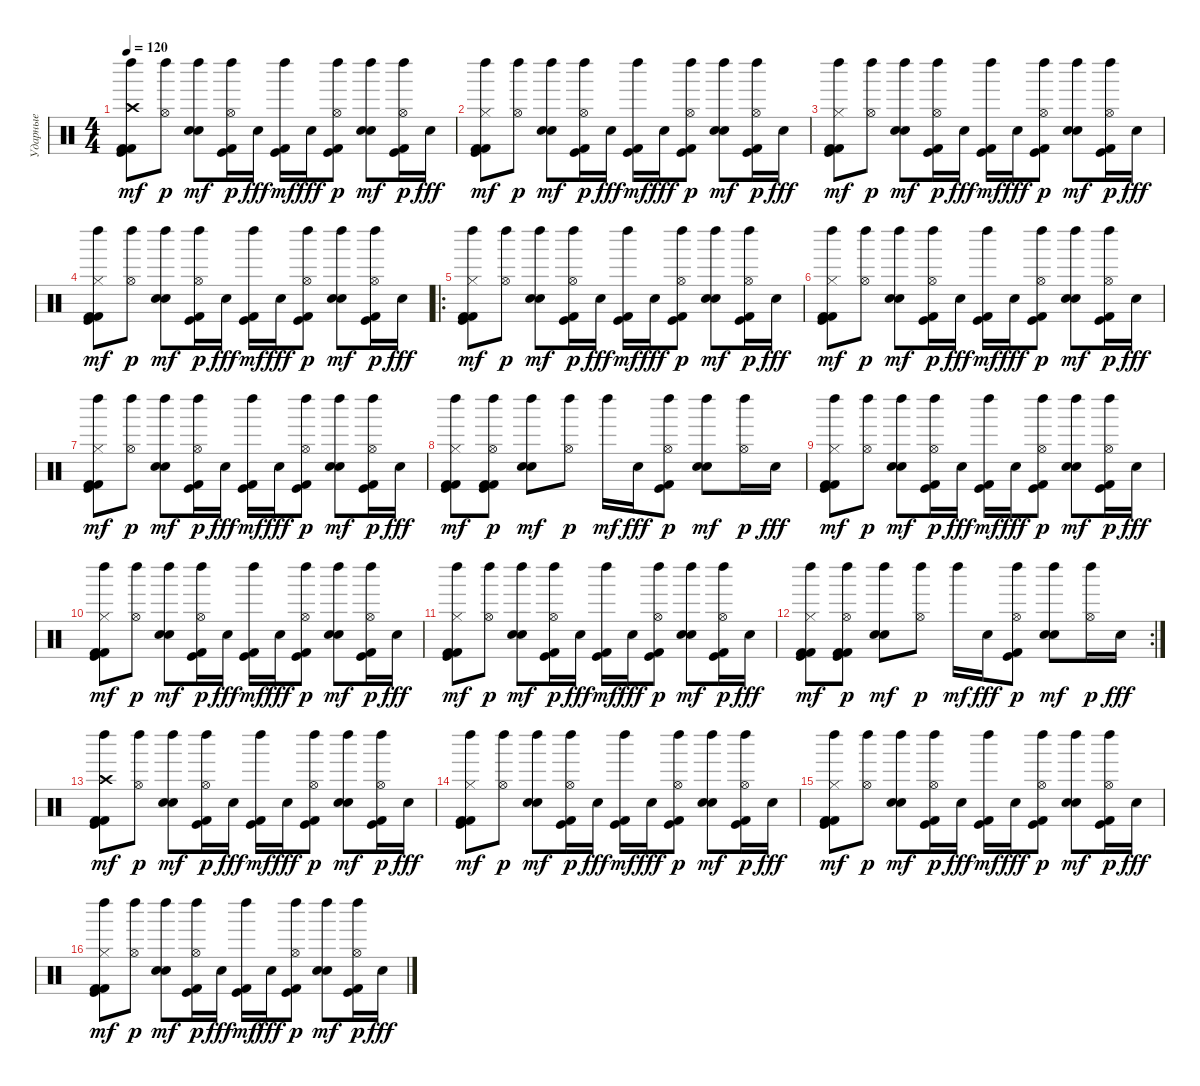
\track ("Ударные" "Ударные") {instrument percussion}
\staff {score}
\articulation defaults
\ts (4 4)
\tempo 120
\clef neutral
\ks c
("Crash high (hit)" "Kick (hit)" "Kick (hit) 2" "Kick (hit) 2" "Left Maraca (hit)").8{dy mf} ("Hi-Hat (open)" "Left Maraca (hit)").8{dy p} ("Snare (hit) 2" "Electric Snare (hit)" "Left Maraca (hit)").8{dy mf} ("Hi-Hat (open)" "Kick (hit)" "Kick (hit) 2" "Left Maraca (hit)").16{dy p} "Snare (hit) 2".16{dy fff} ("Kick (hit)" "Kick (hit) 2" "Left Maraca (hit)").16{dy mf} "Snare (hit) 2".16{dy fff} ("Hi-Hat (open)" "Kick (hit)" "Kick (hit) 2" "Left Maraca (hit)").8{dy p} ("Snare (hit) 2" "Electric Snare (hit)" "Left Maraca (hit)").8{dy mf} ("Hi-Hat (open)" "Kick (hit)" "Kick (hit) 2" "Left Maraca (hit)").16{dy p} "Snare (hit) 2".16{dy fff} |
("Hi-Hat (closed)" "Kick (hit)" "Kick (hit) 2" "Kick (hit) 2" "Left Maraca (hit)").8{dy mf} ("Hi-Hat (open)" "Left Maraca (hit)").8{dy p} ("Snare (hit) 2" "Electric Snare (hit)" "Left Maraca (hit)").8{dy mf} ("Hi-Hat (open)" "Kick (hit)" "Kick (hit) 2" "Left Maraca (hit)").16{dy p} "Snare (hit) 2".16{dy fff} ("Kick (hit)" "Kick (hit) 2" "Left Maraca (hit)").16{dy mf} "Snare (hit) 2".16{dy fff} ("Hi-Hat (open)" "Kick (hit)" "Kick (hit) 2" "Left Maraca (hit)").8{dy p} ("Snare (hit) 2" "Electric Snare (hit)" "Left Maraca (hit)").8{dy mf} ("Hi-Hat (open)" "Kick (hit)" "Kick (hit) 2" "Left Maraca (hit)").16{dy p} "Snare (hit) 2".16{dy fff} |
("Hi-Hat (closed)" "Kick (hit)" "Kick (hit) 2" "Kick (hit) 2" "Left Maraca (hit)").8{dy mf} ("Hi-Hat (open)" "Left Maraca (hit)").8{dy p} ("Snare (hit) 2" "Electric Snare (hit)" "Left Maraca (hit)").8{dy mf} ("Hi-Hat (open)" "Kick (hit)" "Kick (hit) 2" "Left Maraca (hit)").16{dy p} "Snare (hit) 2".16{dy fff} ("Kick (hit)" "Kick (hit) 2" "Left Maraca (hit)").16{dy mf} "Snare (hit) 2".16{dy fff} ("Hi-Hat (open)" "Kick (hit)" "Kick (hit) 2" "Left Maraca (hit)").8{dy p} ("Snare (hit) 2" "Electric Snare (hit)" "Left Maraca (hit)").8{dy mf} ("Hi-Hat (open)" "Kick (hit)" "Kick (hit) 2" "Left Maraca (hit)").16{dy p} "Snare (hit) 2".16{dy fff} |
("Hi-Hat (closed)" "Kick (hit)" "Kick (hit) 2" "Kick (hit) 2" "Left Maraca (hit)").8{dy mf} ("Hi-Hat (open)" "Left Maraca (hit)").8{dy p} ("Snare (hit) 2" "Electric Snare (hit)" "Left Maraca (hit)").8{dy mf} ("Hi-Hat (open)" "Kick (hit)" "Kick (hit) 2" "Left Maraca (hit)").16{dy p} "Snare (hit) 2".16{dy fff} ("Kick (hit)" "Kick (hit) 2" "Left Maraca (hit)").16{dy mf} "Snare (hit) 2".16{dy fff} ("Hi-Hat (open)" "Kick (hit)" "Kick (hit) 2" "Left Maraca (hit)").8{dy p} ("Snare (hit) 2" "Electric Snare (hit)" "Left Maraca (hit)").8{dy mf} ("Hi-Hat (open)" "Kick (hit)" "Kick (hit) 2" "Left Maraca (hit)").16{dy p} "Snare (hit) 2".16{dy fff} |
\ro
("Hi-Hat (closed)" "Kick (hit)" "Kick (hit) 2" "Kick (hit) 2" "Left Maraca (hit)").8{dy mf} ("Hi-Hat (open)" "Left Maraca (hit)").8{dy p} ("Snare (hit) 2" "Electric Snare (hit)" "Left Maraca (hit)").8{dy mf} ("Hi-Hat (open)" "Kick (hit)" "Kick (hit) 2" "Left Maraca (hit)").16{dy p} "Snare (hit) 2".16{dy fff} ("Kick (hit)" "Kick (hit) 2" "Left Maraca (hit)").16{dy mf} "Snare (hit) 2".16{dy fff} ("Hi-Hat (open)" "Kick (hit)" "Kick (hit) 2" "Left Maraca (hit)").8{dy p} ("Snare (hit) 2" "Electric Snare (hit)" "Left Maraca (hit)").8{dy mf} ("Hi-Hat (open)" "Kick (hit)" "Kick (hit) 2" "Left Maraca (hit)").16{dy p} "Snare (hit) 2".16{dy fff} |
("Hi-Hat (closed)" "Kick (hit)" "Kick (hit) 2" "Kick (hit) 2" "Left Maraca (hit)").8{dy mf} ("Hi-Hat (open)" "Left Maraca (hit)").8{dy p} ("Snare (hit) 2" "Electric Snare (hit)" "Left Maraca (hit)").8{dy mf} ("Hi-Hat (open)" "Kick (hit)" "Kick (hit) 2" "Left Maraca (hit)").16{dy p} "Snare (hit) 2".16{dy fff} ("Kick (hit)" "Kick (hit) 2" "Left Maraca (hit)").16{dy mf} "Snare (hit) 2".16{dy fff} ("Hi-Hat (open)" "Kick (hit)" "Kick (hit) 2" "Left Maraca (hit)").8{dy p} ("Snare (hit) 2" "Electric Snare (hit)" "Left Maraca (hit)").8{dy mf} ("Hi-Hat (open)" "Kick (hit)" "Kick (hit) 2" "Left Maraca (hit)").16{dy p} "Snare (hit) 2".16{dy fff} |
("Hi-Hat (closed)" "Kick (hit)" "Kick (hit) 2" "Kick (hit) 2" "Left Maraca (hit)").8{dy mf} ("Hi-Hat (open)" "Left Maraca (hit)").8{dy p} ("Snare (hit) 2" "Electric Snare (hit)" "Left Maraca (hit)").8{dy mf} ("Hi-Hat (open)" "Kick (hit)" "Kick (hit) 2" "Left Maraca (hit)").16{dy p} "Snare (hit) 2".16{dy fff} ("Kick (hit)" "Kick (hit) 2" "Left Maraca (hit)").16{dy mf} "Snare (hit) 2".16{dy fff} ("Hi-Hat (open)" "Kick (hit)" "Kick (hit) 2" "Left Maraca (hit)").8{dy p} ("Snare (hit) 2" "Electric Snare (hit)" "Left Maraca (hit)").8{dy mf} ("Hi-Hat (open)" "Kick (hit)" "Kick (hit) 2" "Left Maraca (hit)").16{dy p} "Snare (hit) 2".16{dy fff} |
("Hi-Hat (closed)" "Kick (hit)" "Kick (hit) 2" "Kick (hit) 2" "Left Maraca (hit)").8{dy mf} ("Hi-Hat (open)" "Kick (hit)" "Kick (hit) 2" "Kick (hit) 2" "Left Maraca (hit)").8{dy p} ("Snare (hit) 2" "Electric Snare (hit)" "Left Maraca (hit)").8{dy mf} ("Hi-Hat (open)" "Left Maraca (hit)").8{dy p} "Left Maraca (hit)".16{dy mf} "Snare (hit) 2".16{dy fff} ("Hi-Hat (open)" "Kick (hit)" "Kick (hit) 2" "Left Maraca (hit)").8{dy p} ("Snare (hit) 2" "Electric Snare (hit)" "Left Maraca (hit)").8{dy mf} ("Hi-Hat (open)" "Left Maraca (hit)").16{dy p} "Snare (hit) 2".16{dy fff} |
("Hi-Hat (closed)" "Kick (hit)" "Kick (hit) 2" "Kick (hit) 2" "Left Maraca (hit)").8{dy mf} ("Hi-Hat (open)" "Left Maraca (hit)").8{dy p} ("Snare (hit) 2" "Electric Snare (hit)" "Left Maraca (hit)").8{dy mf} ("Hi-Hat (open)" "Kick (hit)" "Kick (hit) 2" "Left Maraca (hit)").16{dy p} "Snare (hit) 2".16{dy fff} ("Kick (hit)" "Kick (hit) 2" "Left Maraca (hit)").16{dy mf} "Snare (hit) 2".16{dy fff} ("Hi-Hat (open)" "Kick (hit)" "Kick (hit) 2" "Left Maraca (hit)").8{dy p} ("Snare (hit) 2" "Electric Snare (hit)" "Left Maraca (hit)").8{dy mf} ("Hi-Hat (open)" "Kick (hit)" "Kick (hit) 2" "Left Maraca (hit)").16{dy p} "Snare (hit) 2".16{dy fff} |
("Hi-Hat (closed)" "Kick (hit)" "Kick (hit) 2" "Kick (hit) 2" "Left Maraca (hit)").8{dy mf} ("Hi-Hat (open)" "Left Maraca (hit)").8{dy p} ("Snare (hit) 2" "Electric Snare (hit)" "Left Maraca (hit)").8{dy mf} ("Hi-Hat (open)" "Kick (hit)" "Kick (hit) 2" "Left Maraca (hit)").16{dy p} "Snare (hit) 2".16{dy fff} ("Kick (hit)" "Kick (hit) 2" "Left Maraca (hit)").16{dy mf} "Snare (hit) 2".16{dy fff} ("Hi-Hat (open)" "Kick (hit)" "Kick (hit) 2" "Left Maraca (hit)").8{dy p} ("Snare (hit) 2" "Electric Snare (hit)" "Left Maraca (hit)").8{dy mf} ("Hi-Hat (open)" "Kick (hit)" "Kick (hit) 2" "Left Maraca (hit)").16{dy p} "Snare (hit) 2".16{dy fff} |
("Hi-Hat (closed)" "Kick (hit)" "Kick (hit) 2" "Kick (hit) 2" "Left Maraca (hit)").8{dy mf} ("Hi-Hat (open)" "Left Maraca (hit)").8{dy p} ("Snare (hit) 2" "Electric Snare (hit)" "Left Maraca (hit)").8{dy mf} ("Hi-Hat (open)" "Kick (hit)" "Kick (hit) 2" "Left Maraca (hit)").16{dy p} "Snare (hit) 2".16{dy fff} ("Kick (hit)" "Kick (hit) 2" "Left Maraca (hit)").16{dy mf} "Snare (hit) 2".16{dy fff} ("Hi-Hat (open)" "Kick (hit)" "Kick (hit) 2" "Left Maraca (hit)").8{dy p} ("Snare (hit) 2" "Electric Snare (hit)" "Left Maraca (hit)").8{dy mf} ("Hi-Hat (open)" "Kick (hit)" "Kick (hit) 2" "Left Maraca (hit)").16{dy p} "Snare (hit) 2".16{dy fff} |
\rc 2
("Hi-Hat (closed)" "Kick (hit)" "Kick (hit) 2" "Kick (hit) 2" "Left Maraca (hit)").8{dy mf} ("Hi-Hat (open)" "Kick (hit)" "Kick (hit) 2" "Kick (hit) 2" "Left Maraca (hit)").8{dy p} ("Snare (hit) 2" "Electric Snare (hit)" "Left Maraca (hit)").8{dy mf} ("Hi-Hat (open)" "Left Maraca (hit)").8{dy p} "Left Maraca (hit)".16{dy mf} "Snare (hit) 2".16{dy fff} ("Hi-Hat (open)" "Kick (hit)" "Kick (hit) 2" "Left Maraca (hit)").8{dy p} ("Snare (hit) 2" "Electric Snare (hit)" "Left Maraca (hit)").8{dy mf} ("Hi-Hat (open)" "Left Maraca (hit)").16{dy p} "Snare (hit) 2".16{dy fff} |
("Crash high (hit)" "Kick (hit)" "Kick (hit) 2" "Kick (hit) 2" "Left Maraca (hit)").8{dy mf} ("Hi-Hat (open)" "Left Maraca (hit)").8{dy p} ("Snare (hit) 2" "Electric Snare (hit)" "Left Maraca (hit)").8{dy mf} ("Hi-Hat (open)" "Kick (hit)" "Kick (hit) 2" "Left Maraca (hit)").16{dy p} "Snare (hit) 2".16{dy fff} ("Kick (hit)" "Kick (hit) 2" "Left Maraca (hit)").16{dy mf} "Snare (hit) 2".16{dy fff} ("Hi-Hat (open)" "Kick (hit)" "Kick (hit) 2" "Left Maraca (hit)").8{dy p} ("Snare (hit) 2" "Electric Snare (hit)" "Left Maraca (hit)").8{dy mf} ("Hi-Hat (open)" "Kick (hit)" "Kick (hit) 2" "Left Maraca (hit)").16{dy p} "Snare (hit) 2".16{dy fff} |
("Hi-Hat (closed)" "Kick (hit)" "Kick (hit) 2" "Kick (hit) 2" "Left Maraca (hit)").8{dy mf} ("Hi-Hat (open)" "Left Maraca (hit)").8{dy p} ("Snare (hit) 2" "Electric Snare (hit)" "Left Maraca (hit)").8{dy mf} ("Hi-Hat (open)" "Kick (hit)" "Kick (hit) 2" "Left Maraca (hit)").16{dy p} "Snare (hit) 2".16{dy fff} ("Kick (hit)" "Kick (hit) 2" "Left Maraca (hit)").16{dy mf} "Snare (hit) 2".16{dy fff} ("Hi-Hat (open)" "Kick (hit)" "Kick (hit) 2" "Left Maraca (hit)").8{dy p} ("Snare (hit) 2" "Electric Snare (hit)" "Left Maraca (hit)").8{dy mf} ("Hi-Hat (open)" "Kick (hit)" "Kick (hit) 2" "Left Maraca (hit)").16{dy p} "Snare (hit) 2".16{dy fff} |
("Hi-Hat (closed)" "Kick (hit)" "Kick (hit) 2" "Kick (hit) 2" "Left Maraca (hit)").8{dy mf} ("Hi-Hat (open)" "Left Maraca (hit)").8{dy p} ("Snare (hit) 2" "Electric Snare (hit)" "Left Maraca (hit)").8{dy mf} ("Hi-Hat (open)" "Kick (hit)" "Kick (hit) 2" "Left Maraca (hit)").16{dy p} "Snare (hit) 2".16{dy fff} ("Kick (hit)" "Kick (hit) 2" "Left Maraca (hit)").16{dy mf} "Snare (hit) 2".16{dy fff} ("Hi-Hat (open)" "Kick (hit)" "Kick (hit) 2" "Left Maraca (hit)").8{dy p} ("Snare (hit) 2" "Electric Snare (hit)" "Left Maraca (hit)").8{dy mf} ("Hi-Hat (open)" "Kick (hit)" "Kick (hit) 2" "Left Maraca (hit)").16{dy p} "Snare (hit) 2".16{dy fff} |
("Hi-Hat (closed)" "Kick (hit)" "Kick (hit) 2" "Kick (hit) 2" "Left Maraca (hit)").8{dy mf} ("Hi-Hat (open)" "Left Maraca (hit)").8{dy p} ("Snare (hit) 2" "Electric Snare (hit)" "Left Maraca (hit)").8{dy mf} ("Hi-Hat (open)" "Kick (hit)" "Kick (hit) 2" "Left Maraca (hit)").16{dy p} "Snare (hit) 2".16{dy fff} ("Kick (hit)" "Kick (hit) 2" "Left Maraca (hit)").16{dy mf} "Snare (hit) 2".16{dy fff} ("Hi-Hat (open)" "Kick (hit)" "Kick (hit) 2" "Left Maraca (hit)").8{dy p} ("Snare (hit) 2" "Electric Snare (hit)" "Left Maraca (hit)").8{dy mf} ("Hi-Hat (open)" "Kick (hit)" "Kick (hit) 2" "Left Maraca (hit)").16{dy p} "Snare (hit) 2".16{dy fff}
